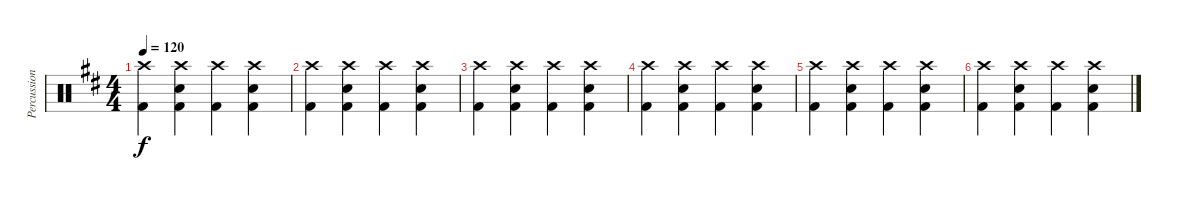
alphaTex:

\track ("Percussion" "Percussion") {instrument percussion}
\staff {score}
\articulation defaults
\ts (4 4)
\tempo 120
\clef neutral
\ks d
("Crash high (hit)" "Kick (hit) 2").4{dy f} ("Crash high (hit)" "Snare (hit) 2" "Kick (hit) 2").4 ("Crash high (hit)" "Kick (hit) 2").4 ("Crash high (hit)" "Snare (hit) 2" "Kick (hit) 2").4 |
("Crash high (hit)" "Kick (hit) 2").4 ("Crash high (hit)" "Snare (hit) 2" "Kick (hit) 2").4 ("Crash high (hit)" "Kick (hit) 2").4 ("Crash high (hit)" "Snare (hit) 2" "Kick (hit) 2").4 |
("Crash high (hit)" "Kick (hit) 2").4 ("Crash high (hit)" "Snare (hit) 2" "Kick (hit) 2").4 ("Crash high (hit)" "Kick (hit) 2").4 ("Crash high (hit)" "Snare (hit) 2" "Kick (hit) 2").4 |
("Crash high (hit)" "Kick (hit) 2").4 ("Crash high (hit)" "Snare (hit) 2" "Kick (hit) 2").4 ("Crash high (hit)" "Kick (hit) 2").4 ("Crash high (hit)" "Snare (hit) 2" "Kick (hit) 2").4 |
("Crash high (hit)" "Kick (hit) 2").4 ("Crash high (hit)" "Snare (hit) 2" "Kick (hit) 2").4 ("Crash high (hit)" "Kick (hit) 2").4 ("Crash high (hit)" "Snare (hit) 2" "Kick (hit) 2").4 |
("Crash high (hit)" "Kick (hit) 2").4 ("Crash high (hit)" "Snare (hit) 2" "Kick (hit) 2").4 ("Crash high (hit)" "Kick (hit) 2").4 ("Crash high (hit)" "Snare (hit) 2" "Kick (hit) 2").4
